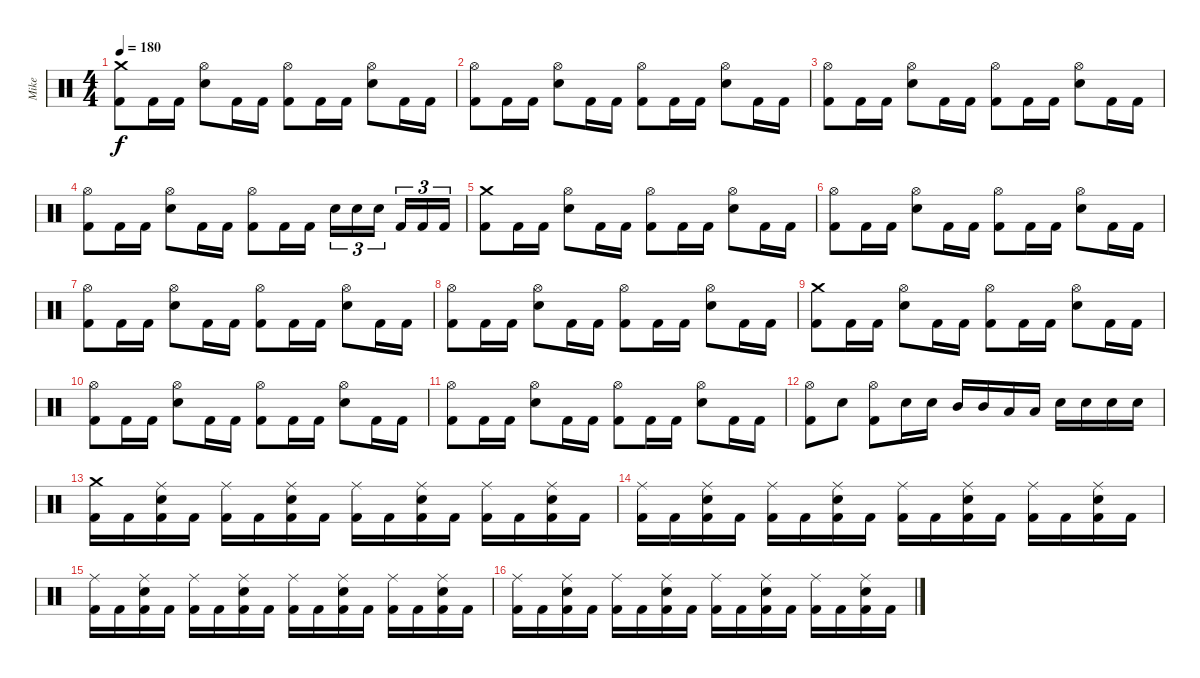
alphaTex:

\track ("Mike" "Mike") {instrument percussion}
\staff {score}
\articulation defaults
\ts (4 4)
\tempo 180
\clef neutral
\ks c
("Crash medium (hit)" "Kick (hit) 2").8{dy f} "Kick (hit) 2".16 "Kick (hit) 2".16 ("Hi-Hat (open)" "Electric Snare (hit)").8 "Kick (hit) 2".16 "Kick (hit) 2".16 ("Hi-Hat (open)" "Kick (hit) 2").8 "Kick (hit) 2".16 "Kick (hit) 2".16 ("Hi-Hat (open)" "Electric Snare (hit)").8 "Kick (hit) 2".16 "Kick (hit) 2".16 |
("Hi-Hat (open)" "Kick (hit) 2").8 "Kick (hit) 2".16 "Kick (hit) 2".16 ("Hi-Hat (open)" "Electric Snare (hit)").8 "Kick (hit) 2".16 "Kick (hit) 2".16 ("Hi-Hat (open)" "Kick (hit) 2").8 "Kick (hit) 2".16 "Kick (hit) 2".16 ("Hi-Hat (open)" "Electric Snare (hit)").8 "Kick (hit) 2".16 "Kick (hit) 2".16 |
("Hi-Hat (open)" "Kick (hit) 2").8 "Kick (hit) 2".16 "Kick (hit) 2".16 ("Hi-Hat (open)" "Electric Snare (hit)").8 "Kick (hit) 2".16 "Kick (hit) 2".16 ("Hi-Hat (open)" "Kick (hit) 2").8 "Kick (hit) 2".16 "Kick (hit) 2".16 ("Hi-Hat (open)" "Electric Snare (hit)").8 "Kick (hit) 2".16 "Kick (hit) 2".16 |
("Hi-Hat (open)" "Kick (hit) 2").8 "Kick (hit) 2".16 "Kick (hit) 2".16 ("Hi-Hat (open)" "Electric Snare (hit)").8 "Kick (hit) 2".16 "Kick (hit) 2".16 ("Hi-Hat (open)" "Kick (hit) 2").8 "Kick (hit) 2".16 "Kick (hit) 2".16 "Electric Snare (hit)".16{tu (3 2)} "Electric Snare (hit)".16{tu (3 2)} "Electric Snare (hit)".16{tu (3 2)} "Kick (hit) 2".16{tu (3 2)} "Kick (hit) 2".16{tu (3 2)} "Kick (hit) 2".16{tu (3 2)} |
("Crash medium (hit)" "Kick (hit) 2").8 "Kick (hit) 2".16 "Kick (hit) 2".16 ("Hi-Hat (open)" "Electric Snare (hit)").8 "Kick (hit) 2".16 "Kick (hit) 2".16 ("Hi-Hat (open)" "Kick (hit) 2").8 "Kick (hit) 2".16 "Kick (hit) 2".16 ("Hi-Hat (open)" "Electric Snare (hit)").8 "Kick (hit) 2".16 "Kick (hit) 2".16 |
("Hi-Hat (open)" "Kick (hit) 2").8 "Kick (hit) 2".16 "Kick (hit) 2".16 ("Hi-Hat (open)" "Electric Snare (hit)").8 "Kick (hit) 2".16 "Kick (hit) 2".16 ("Hi-Hat (open)" "Kick (hit) 2").8 "Kick (hit) 2".16 "Kick (hit) 2".16 ("Hi-Hat (open)" "Electric Snare (hit)").8 "Kick (hit) 2".16 "Kick (hit) 2".16 |
("Hi-Hat (open)" "Kick (hit) 2").8 "Kick (hit) 2".16 "Kick (hit) 2".16 ("Hi-Hat (open)" "Electric Snare (hit)").8 "Kick (hit) 2".16 "Kick (hit) 2".16 ("Hi-Hat (open)" "Kick (hit) 2").8 "Kick (hit) 2".16 "Kick (hit) 2".16 ("Hi-Hat (open)" "Electric Snare (hit)").8 "Kick (hit) 2".16 "Kick (hit) 2".16 |
("Hi-Hat (open)" "Kick (hit) 2").8 "Kick (hit) 2".16 "Kick (hit) 2".16 ("Hi-Hat (open)" "Electric Snare (hit)").8 "Kick (hit) 2".16 "Kick (hit) 2".16 ("Hi-Hat (open)" "Kick (hit) 2").8 "Kick (hit) 2".16 "Kick (hit) 2".16 ("Hi-Hat (open)" "Electric Snare (hit)").8 "Kick (hit) 2".16 "Kick (hit) 2".16 |
("Crash medium (hit)" "Kick (hit) 2").8 "Kick (hit) 2".16 "Kick (hit) 2".16 ("Hi-Hat (open)" "Electric Snare (hit)").8 "Kick (hit) 2".16 "Kick (hit) 2".16 ("Hi-Hat (open)" "Kick (hit) 2").8 "Kick (hit) 2".16 "Kick (hit) 2".16 ("Hi-Hat (open)" "Electric Snare (hit)").8 "Kick (hit) 2".16 "Kick (hit) 2".16 |
("Hi-Hat (open)" "Kick (hit) 2").8 "Kick (hit) 2".16 "Kick (hit) 2".16 ("Hi-Hat (open)" "Electric Snare (hit)").8 "Kick (hit) 2".16 "Kick (hit) 2".16 ("Hi-Hat (open)" "Kick (hit) 2").8 "Kick (hit) 2".16 "Kick (hit) 2".16 ("Hi-Hat (open)" "Electric Snare (hit)").8 "Kick (hit) 2".16 "Kick (hit) 2".16 |
("Hi-Hat (open)" "Kick (hit) 2").8 "Kick (hit) 2".16 "Kick (hit) 2".16 ("Hi-Hat (open)" "Electric Snare (hit)").8 "Kick (hit) 2".16 "Kick (hit) 2".16 ("Hi-Hat (open)" "Kick (hit) 2").8 "Kick (hit) 2".16 "Kick (hit) 2".16 ("Hi-Hat (open)" "Electric Snare (hit)").8 "Kick (hit) 2".16 "Kick (hit) 2".16 |
("Hi-Hat (open)" "Kick (hit) 2").8 "Electric Snare (hit)".8 ("Hi-Hat (open)" "Kick (hit) 2").8 "Electric Snare (hit)".16 "Electric Snare (hit)".16 "Mid Tom (hit)".16 "Mid Tom (hit)".16 "Low Tom (hit)".16 "Low Tom (hit)".16 "Electric Snare (hit)".16 "Electric Snare (hit)".16 "Electric Snare (hit)".16 "Electric Snare (hit)".16 |
("Crash medium (hit)" "Kick (hit) 2").16 "Kick (hit) 2".16 ("Ride (middle)" "Electric Snare (hit)" "Kick (hit) 2").16 "Kick (hit) 2".16 ("Ride (middle)" "Kick (hit) 2").16 "Kick (hit) 2".16 ("Ride (middle)" "Electric Snare (hit)" "Kick (hit) 2").16 "Kick (hit) 2".16 ("Ride (middle)" "Kick (hit) 2").16 "Kick (hit) 2".16 ("Ride (middle)" "Electric Snare (hit)" "Kick (hit) 2").16 "Kick (hit) 2".16 ("Ride (middle)" "Kick (hit) 2").16 "Kick (hit) 2".16 ("Ride (middle)" "Electric Snare (hit)" "Kick (hit) 2").16 "Kick (hit) 2".16 |
("Ride (middle)" "Kick (hit) 2").16 "Kick (hit) 2".16 ("Ride (middle)" "Electric Snare (hit)" "Kick (hit) 2").16 "Kick (hit) 2".16 ("Ride (middle)" "Kick (hit) 2").16 "Kick (hit) 2".16 ("Ride (middle)" "Electric Snare (hit)" "Kick (hit) 2").16 "Kick (hit) 2".16 ("Ride (middle)" "Kick (hit) 2").16 "Kick (hit) 2".16 ("Ride (middle)" "Electric Snare (hit)" "Kick (hit) 2").16 "Kick (hit) 2".16 ("Ride (middle)" "Kick (hit) 2").16 "Kick (hit) 2".16 ("Ride (middle)" "Electric Snare (hit)" "Kick (hit) 2").16 "Kick (hit) 2".16 |
("Ride (middle)" "Kick (hit) 2").16 "Kick (hit) 2".16 ("Ride (middle)" "Electric Snare (hit)" "Kick (hit) 2").16 "Kick (hit) 2".16 ("Ride (middle)" "Kick (hit) 2").16 "Kick (hit) 2".16 ("Ride (middle)" "Electric Snare (hit)" "Kick (hit) 2").16 "Kick (hit) 2".16 ("Ride (middle)" "Kick (hit) 2").16 "Kick (hit) 2".16 ("Ride (middle)" "Electric Snare (hit)" "Kick (hit) 2").16 "Kick (hit) 2".16 ("Ride (middle)" "Kick (hit) 2").16 "Kick (hit) 2".16 ("Ride (middle)" "Electric Snare (hit)" "Kick (hit) 2").16 "Kick (hit) 2".16 |
("Ride (middle)" "Kick (hit) 2").16 "Kick (hit) 2".16 ("Ride (middle)" "Electric Snare (hit)" "Kick (hit) 2").16 "Kick (hit) 2".16 ("Ride (middle)" "Kick (hit) 2").16 "Kick (hit) 2".16 ("Ride (middle)" "Electric Snare (hit)" "Kick (hit) 2").16 "Kick (hit) 2".16 ("Ride (middle)" "Kick (hit) 2").16 "Kick (hit) 2".16 ("Ride (middle)" "Electric Snare (hit)" "Kick (hit) 2").16 "Kick (hit) 2".16 ("Ride (middle)" "Kick (hit) 2").16 "Kick (hit) 2".16 ("Ride (middle)" "Electric Snare (hit)" "Kick (hit) 2").16 "Kick (hit) 2".16
